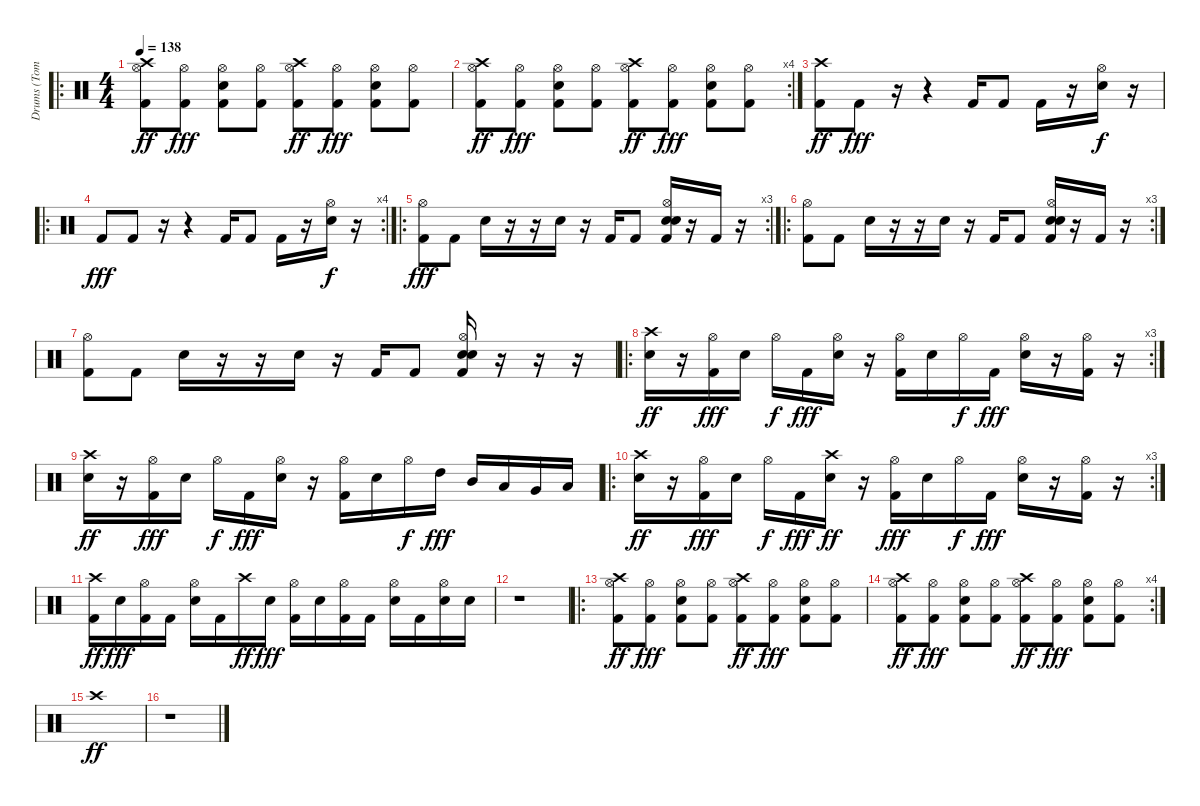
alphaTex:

\track ("Drums (Tommy Decker)" "Drums (Tom") {instrument percussion}
\staff {score}
\articulation defaults
\ro
\ts (4 4)
\tempo 138
\clef neutral
\ks c
("Kick (hit) 2" "Hi-Hat (open)" "Crash high (hit)").8{dy ff} ("Kick (hit) 2" "Hi-Hat (open)").8{dy fff} ("Kick (hit) 2" "Hi-Hat (open)" "Snare (hit) 2").8 ("Kick (hit) 2" "Hi-Hat (open)").8 ("Kick (hit) 2" "Hi-Hat (open)" "Crash high (hit)").8{dy ff} ("Kick (hit) 2" "Hi-Hat (open)").8{dy fff} ("Kick (hit) 2" "Hi-Hat (open)" "Snare (hit) 2").8 ("Kick (hit) 2" "Hi-Hat (open)").8 |
\rc 4
("Kick (hit) 2" "Hi-Hat (open)" "Crash high (hit)").8{dy ff} ("Kick (hit) 2" "Hi-Hat (open)").8{dy fff} ("Kick (hit) 2" "Hi-Hat (open)" "Snare (hit) 2").8 ("Kick (hit) 2" "Hi-Hat (open)").8 ("Kick (hit) 2" "Hi-Hat (open)" "Crash high (hit)").8{dy ff} ("Kick (hit) 2" "Hi-Hat (open)").8{dy fff} ("Kick (hit) 2" "Hi-Hat (open)" "Snare (hit) 2").8 ("Kick (hit) 2" "Hi-Hat (open)").8 |
("Kick (hit) 2" "Crash high (hit)").8{dy ff} "Kick (hit) 2".8{dy fff} r.16 r.4 "Kick (hit) 2".16 "Kick (hit) 2".8 "Kick (hit) 2".16 r.16 ("Hi-Hat (open)" "Electric Snare (hit)").16{dy f} r.16 |
\ro
\rc 4 "Kick (hit) 2".8{dy fff} "Kick (hit) 2".8
r.16 r.4 "Kick (hit) 2".16 "Kick (hit) 2".8 "Kick (hit) 2".16 r.16 ("Hi-Hat (open)" "Electric Snare (hit)").16{dy f} r.16 |
\ro
\rc 3
("Kick (hit) 2" "Hi-Hat (open)").8{dy fff} "Kick (hit) 2".8 "Snare (hit) 2".16 r.16 r.16 "Snare (hit) 2".16 r.16 "Kick (hit) 2".16 "Kick (hit) 2".8 ("Kick (hit) 2" "Hi-Hat (open)" "Electric Snare (hit)" "Snare (hit) 2").16 r.16 "Kick (hit) 2".16 r.16 |
\ro
\rc 3
("Kick (hit) 2" "Hi-Hat (open)").8 "Kick (hit) 2".8 "Snare (hit) 2".16 r.16 r.16 "Snare (hit) 2".16 r.16 "Kick (hit) 2".16 "Kick (hit) 2".8 ("Kick (hit) 2" "Hi-Hat (open)" "Electric Snare (hit)" "Snare (hit) 2").16 r.16 "Kick (hit) 2".16 r.16 |
("Kick (hit) 2" "Hi-Hat (open)").8 "Kick (hit) 2".8 "Snare (hit) 2".16 r.16 r.16 "Snare (hit) 2".16 r.16 "Kick (hit) 2".16 "Kick (hit) 2".8 ("Kick (hit) 2" "Hi-Hat (open)" "Electric Snare (hit)" "Snare (hit) 2").16 r.16 r.16 r.16 |
\ro
\rc 3
("Snare (hit) 2" "Crash high (hit)").16{dy ff} r.16 ("Kick (hit) 2" "Hi-Hat (open)").16{dy fff} "Snare (hit) 2".16 "Hi-Hat (open)".16{dy f} "Kick (hit) 2".16{dy fff} ("Snare (hit) 2" "Hi-Hat (open)").16 r.16 ("Kick (hit) 2" "Hi-Hat (open)").16 "Snare (hit) 2".16 "Hi-Hat (open)".16{dy f} "Kick (hit) 2".16{dy fff} ("Snare (hit) 2" "Hi-Hat (open)").16 r.16 ("Kick (hit) 2" "Hi-Hat (open)").16 r.16 |
("Snare (hit) 2" "Crash high (hit)").16{dy ff} r.16 ("Kick (hit) 2" "Hi-Hat (open)").16{dy fff} "Snare (hit) 2".16 "Hi-Hat (open)".16{dy f} "Kick (hit) 2".16{dy fff} ("Snare (hit) 2" "Hi-Hat (open)").16 r.16 ("Kick (hit) 2" "Hi-Hat (open)").16 "Snare (hit) 2".16 "Hi-Hat (open)".16{dy f} "High Tom (hit)".16{dy fff} "Mid Tom (hit)".16 "Low Tom (hit)".16 "Very Low Tom (hit)".16 "Low Floor Tom (hit)".16 |
\ro
\rc 3
("Snare (hit) 2" "Crash high (hit)").16{dy ff} r.16 ("Kick (hit) 2" "Hi-Hat (open)").16{dy fff} "Snare (hit) 2".16 "Hi-Hat (open)".16{dy f} "Kick (hit) 2".16{dy fff} ("Snare (hit) 2" "Crash high (hit)").16{dy ff} r.16 ("Kick (hit) 2" "Hi-Hat (open)").16{dy fff} "Snare (hit) 2".16 "Hi-Hat (open)".16{dy f} "Kick (hit) 2".16{dy fff} ("Snare (hit) 2" "Hi-Hat (open)").16 r.16 ("Kick (hit) 2" "Hi-Hat (open)").16 r.16 |
("Kick (hit) 2" "Crash high (hit)").16{dy ff} "Snare (hit) 2".16{dy fff} ("Kick (hit) 2" "Hi-Hat (open)").16 "Kick (hit) 2".16 ("Snare (hit) 2" "Hi-Hat (open)").16 "Kick (hit) 2".16 "Crash high (hit)".16{dy ff} "Snare (hit) 2".16{dy fff} ("Kick (hit) 2" "Hi-Hat (open)").16 "Snare (hit) 2".16 ("Kick (hit) 2" "Hi-Hat (open)").16 "Kick (hit) 2".16 ("Snare (hit) 2" "Hi-Hat (open)").16 "Kick (hit) 2".16 ("Snare (hit) 2" "Hi-Hat (open)").16 "Snare (hit) 2".16 |
r.1 |
\ro
("Kick (hit) 2" "Hi-Hat (open)" "Crash high (hit)").8{dy ff} ("Kick (hit) 2" "Hi-Hat (open)").8{dy fff} ("Kick (hit) 2" "Hi-Hat (open)" "Snare (hit) 2").8 ("Kick (hit) 2" "Hi-Hat (open)").8 ("Kick (hit) 2" "Hi-Hat (open)" "Crash high (hit)").8{dy ff} ("Kick (hit) 2" "Hi-Hat (open)").8{dy fff} ("Kick (hit) 2" "Hi-Hat (open)" "Snare (hit) 2").8 ("Kick (hit) 2" "Hi-Hat (open)").8 |
\rc 4
("Kick (hit) 2" "Hi-Hat (open)" "Crash high (hit)").8{dy ff} ("Kick (hit) 2" "Hi-Hat (open)").8{dy fff} ("Kick (hit) 2" "Hi-Hat (open)" "Snare (hit) 2").8 ("Kick (hit) 2" "Hi-Hat (open)").8 ("Kick (hit) 2" "Hi-Hat (open)" "Crash high (hit)").8{dy ff} ("Kick (hit) 2" "Hi-Hat (open)").8{dy fff} ("Kick (hit) 2" "Hi-Hat (open)" "Snare (hit) 2").8 ("Kick (hit) 2" "Hi-Hat (open)").8 |
"Crash high (hit)".1{dy ff} |
r.1
